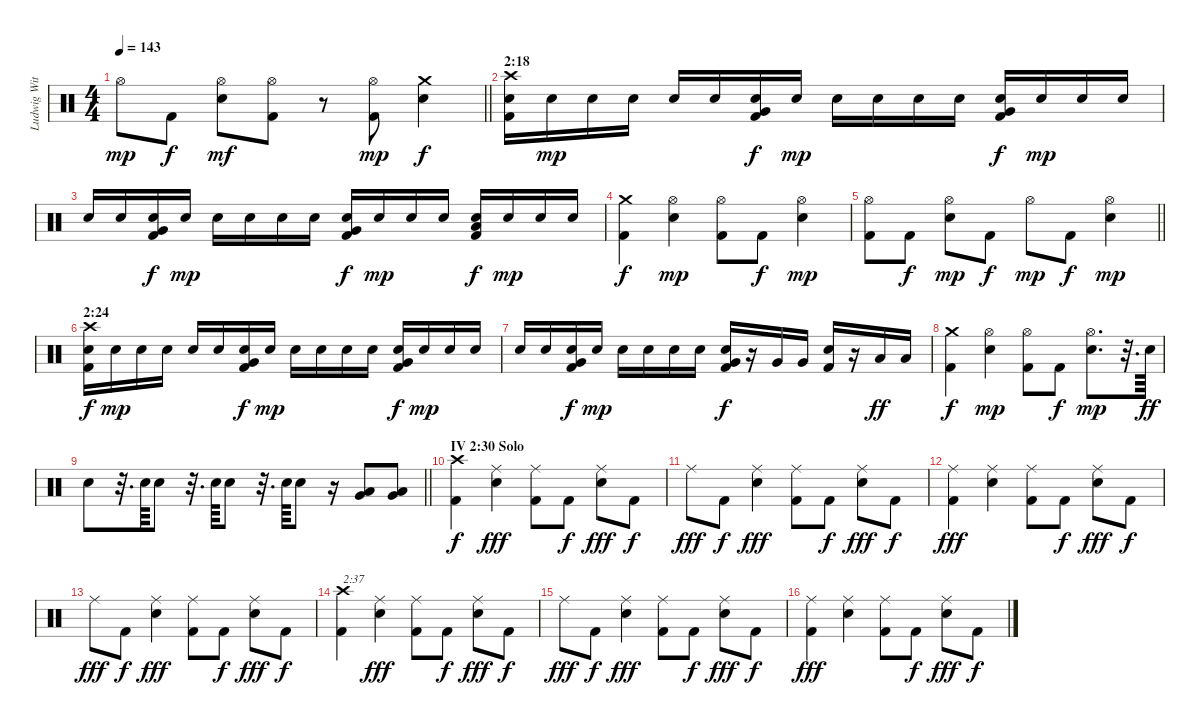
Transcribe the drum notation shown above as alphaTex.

\track ("Ludwig Witt (Drums)" "Ludwig Wit") {instrument percussion}
\staff {score}
\articulation defaults
\ts (4 4)
\tempo 143
\clef neutral
\barLineRight lightlight
\ks c "Hi-Hat (open)".8{dy mp} "Kick (hit) 2".8{dy f}
("Hi-Hat (open)" "Electric Snare (hit)").8{dy mf} ("Hi-Hat (open)" "Kick (hit) 2").8 r.8 ("Hi-Hat (open)" "Kick (hit) 2").8{dy mp} ("Crash medium (hit)" "Electric Snare (hit)").4{dy f} |
\section ("" "2:18")
("Crash high (hit)" "Electric Snare (hit)" "Kick (hit) 2").16 "Electric Snare (hit)".16{dy mp} "Electric Snare (hit)".16 "Electric Snare (hit)".16 "Electric Snare (hit)".16 "Electric Snare (hit)".16 ("Electric Snare (hit)" "Very Low Tom (hit)" "Kick (hit) 2").16{dy f} "Electric Snare (hit)".16{dy mp} "Electric Snare (hit)".16 "Electric Snare (hit)".16 "Electric Snare (hit)".16 "Electric Snare (hit)".16 ("Electric Snare (hit)" "Very Low Tom (hit)" "Kick (hit) 2").16{dy f} "Electric Snare (hit)".16{dy mp} "Electric Snare (hit)".16 "Electric Snare (hit)".16 |
"Electric Snare (hit)".16 "Electric Snare (hit)".16 ("Electric Snare (hit)" "Very Low Tom (hit)" "Kick (hit) 2").16{dy f} "Electric Snare (hit)".16{dy mp} "Electric Snare (hit)".16 "Electric Snare (hit)".16 "Electric Snare (hit)".16 "Electric Snare (hit)".16 ("Electric Snare (hit)" "Very Low Tom (hit)" "Kick (hit) 2").16{dy f} "Electric Snare (hit)".16{dy mp} "Electric Snare (hit)".16 "Electric Snare (hit)".16 ("Electric Snare (hit)" "Low Floor Tom (hit)" "Kick (hit) 2").16{dy f} "Electric Snare (hit)".16{dy mp} "Electric Snare (hit)".16 "Electric Snare (hit)".16 |
("Crash medium (hit)" "Kick (hit) 2").4{dy f} ("Hi-Hat (open)" "Electric Snare (hit)").4{dy mp} ("Hi-Hat (open)" "Kick (hit) 2").8 "Kick (hit) 2".8{dy f} ("Hi-Hat (open)" "Electric Snare (hit)").4{dy mp} |
\barLineRight lightlight
("Hi-Hat (open)" "Kick (hit) 2").8 "Kick (hit) 2".8{dy f} ("Hi-Hat (open)" "Electric Snare (hit)").8{dy mp} "Kick (hit) 2".8{dy f} "Hi-Hat (open)".8{dy mp} "Kick (hit) 2".8{dy f} ("Hi-Hat (open)" "Electric Snare (hit)").4{dy mp} |
\section ("" "2:24")
("Crash high (hit)" "Electric Snare (hit)" "Kick (hit) 2").16{dy f} "Electric Snare (hit)".16{dy mp} "Electric Snare (hit)".16 "Electric Snare (hit)".16 "Electric Snare (hit)".16 "Electric Snare (hit)".16 ("Electric Snare (hit)" "Very Low Tom (hit)" "Kick (hit) 2").16{dy f} "Electric Snare (hit)".16{dy mp} "Electric Snare (hit)".16 "Electric Snare (hit)".16 "Electric Snare (hit)".16 "Electric Snare (hit)".16 ("Electric Snare (hit)" "Very Low Tom (hit)" "Kick (hit) 2").16{dy f} "Electric Snare (hit)".16{dy mp} "Electric Snare (hit)".16 "Electric Snare (hit)".16 |
"Electric Snare (hit)".16 "Electric Snare (hit)".16 ("Electric Snare (hit)" "Very Low Tom (hit)" "Kick (hit) 2").16{dy f} "Electric Snare (hit)".16{dy mp} "Electric Snare (hit)".16 "Electric Snare (hit)".16 "Electric Snare (hit)".16 "Electric Snare (hit)".16 ("Electric Snare (hit)" "Very Low Tom (hit)" "Kick (hit) 2").16{dy f} r.16 "Very Low Tom (hit)".16 "Very Low Tom (hit)".16 ("Electric Snare (hit)" "Kick (hit) 2").16 r.16 "Low Floor Tom (hit)".16{dy ff} "Low Floor Tom (hit)".16 |
("Crash medium (hit)" "Kick (hit) 2").4{dy f} ("Hi-Hat (open)" "Electric Snare (hit)").4{dy mp} ("Hi-Hat (open)" "Kick (hit) 2").8 "Kick (hit) 2".8{dy f} ("Hi-Hat (open)" "Electric Snare (hit)").8{d dy mp} r.32{d} "Electric Snare (hit)".64{dy ff} |
\barLineRight lightlight "Electric Snare (hit)".8
r.32{d} "Electric Snare (hit)".64 "Electric Snare (hit)".8 r.32{d} "Electric Snare (hit)".64 "Electric Snare (hit)".8 r.32{d} "Electric Snare (hit)".64 "Electric Snare (hit)".8 r.16 ("Very Low Tom (hit)" "Low Floor Tom (hit)").8 ("Very Low Tom (hit)" "Low Floor Tom (hit)").8 |
\section ("" "IV 2:30 Solo")
("Crash high (hit)" "Kick (hit) 2").4{dy f} ("Ride (middle)" "Electric Snare (hit)").4{dy fff} ("Ride (middle)" "Kick (hit) 2").8 "Kick (hit) 2".8{dy f} ("Ride (middle)" "Electric Snare (hit)").8{dy fff} "Kick (hit) 2".8{dy f} |
"Ride (middle)".8{dy fff} "Kick (hit) 2".8{dy f} ("Ride (middle)" "Electric Snare (hit)").4{dy fff} ("Ride (middle)" "Kick (hit) 2").8 "Kick (hit) 2".8{dy f} ("Ride (middle)" "Electric Snare (hit)").8{dy fff} "Kick (hit) 2".8{dy f} |
("Ride (middle)" "Kick (hit) 2").4{dy fff} ("Ride (middle)" "Electric Snare (hit)").4 ("Ride (middle)" "Kick (hit) 2").8 "Kick (hit) 2".8{dy f} ("Ride (middle)" "Electric Snare (hit)").8{dy fff} "Kick (hit) 2".8{dy f} |
"Ride (middle)".8{dy fff} "Kick (hit) 2".8{dy f} ("Ride (middle)" "Electric Snare (hit)").4{dy fff} ("Ride (middle)" "Kick (hit) 2").8 "Kick (hit) 2".8{dy f} ("Ride (middle)" "Electric Snare (hit)").8{dy fff} "Kick (hit) 2".8{dy f} |
("Crash high (hit)" "Kick (hit) 2").4{txt "2:37"} ("Ride (middle)" "Electric Snare (hit)").4{dy fff} ("Ride (middle)" "Kick (hit) 2").8 "Kick (hit) 2".8{dy f} ("Ride (middle)" "Electric Snare (hit)").8{dy fff} "Kick (hit) 2".8{dy f} |
"Ride (middle)".8{dy fff} "Kick (hit) 2".8{dy f} ("Ride (middle)" "Electric Snare (hit)").4{dy fff} ("Ride (middle)" "Kick (hit) 2").8 "Kick (hit) 2".8{dy f} ("Ride (middle)" "Electric Snare (hit)").8{dy fff} "Kick (hit) 2".8{dy f} |
("Ride (middle)" "Kick (hit) 2").4{dy fff} ("Ride (middle)" "Electric Snare (hit)").4 ("Ride (middle)" "Kick (hit) 2").8 "Kick (hit) 2".8{dy f} ("Ride (middle)" "Electric Snare (hit)").8{dy fff} "Kick (hit) 2".8{dy f}
